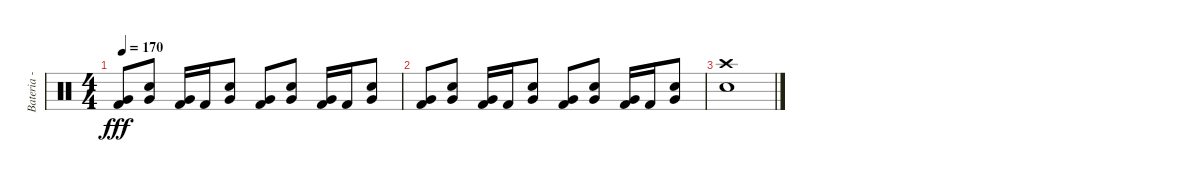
\track ("Bateria - Larzon" "Bateria - ") {instrument percussion}
\staff {score}
\articulation defaults
\ts (4 4)
\tempo 170
\clef neutral
\ks c
("Kick (hit) 2" "Very Low Tom (hit)").8{dy fff} ("Electric Snare (hit)" "Very Low Tom (hit)").8 ("Kick (hit) 2" "Very Low Tom (hit)").16 "Kick (hit) 2".16 ("Electric Snare (hit)" "Very Low Tom (hit)").8 ("Kick (hit) 2" "Very Low Tom (hit)").8 ("Electric Snare (hit)" "Very Low Tom (hit)").8 ("Kick (hit) 2" "Very Low Tom (hit)").16 "Kick (hit) 2".16 ("Electric Snare (hit)" "Very Low Tom (hit)").8 |
("Kick (hit) 2" "Very Low Tom (hit)").8 ("Electric Snare (hit)" "Very Low Tom (hit)").8 ("Kick (hit) 2" "Very Low Tom (hit)").16 "Kick (hit) 2".16 ("Electric Snare (hit)" "Very Low Tom (hit)").8 ("Kick (hit) 2" "Very Low Tom (hit)").8 ("Electric Snare (hit)" "Very Low Tom (hit)").8 ("Kick (hit) 2" "Very Low Tom (hit)").16 "Kick (hit) 2".16 ("Electric Snare (hit)" "Very Low Tom (hit)").8 |
("Crash high (hit)" "Snare (hit) 2").1
